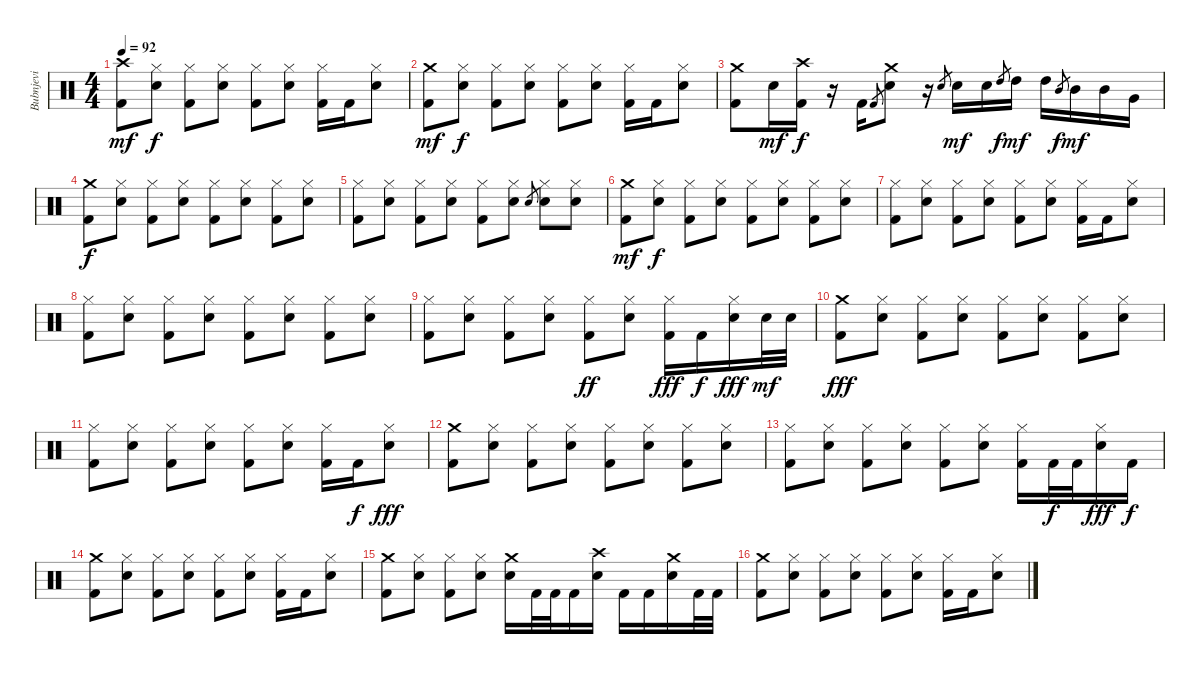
\track ("Bubnjevi" "Bubnjevi") {instrument percussion}
\staff {score}
\articulation defaults
\ts (4 4)
\tempo 92
\clef neutral
\ks c
("Crash high (hit)" "Kick (hit) 2").8{dy mf} ("Hi-Hat (closed)" "Electric Snare (hit)").8{dy f} ("Hi-Hat (closed)" "Kick (hit) 2").8 ("Hi-Hat (closed)" "Electric Snare (hit)").8 ("Hi-Hat (closed)" "Kick (hit) 2").8 ("Hi-Hat (closed)" "Electric Snare (hit)").8 ("Hi-Hat (closed)" "Kick (hit) 2").16 "Kick (hit) 2".16 ("Hi-Hat (closed)" "Electric Snare (hit)").8 |
("Crash medium (hit)" "Kick (hit) 2").8{dy mf} ("Hi-Hat (closed)" "Electric Snare (hit)").8{dy f} ("Hi-Hat (closed)" "Kick (hit) 2").8 ("Hi-Hat (closed)" "Electric Snare (hit)").8 ("Hi-Hat (closed)" "Kick (hit) 2").8 ("Hi-Hat (closed)" "Electric Snare (hit)").8 ("Hi-Hat (closed)" "Kick (hit) 2").16 "Kick (hit) 2".16 ("Hi-Hat (closed)" "Electric Snare (hit)").8 |
("Crash medium (hit)" "Kick (hit) 2").8 "Electric Snare (hit)".16{dy mf} ("Crash high (hit)" "Kick (hit) 2").16{dy f} r.16 "Kick (hit) 2".16 "Kick (hit) 2".8{gr} ("Crash medium (hit)" "Electric Snare (hit)").8 r.16 "Electric Snare (hit)".8{gr} "Electric Snare (hit)".16{dy mf} "Electric Snare (hit)".16 "High Tom (hit)".8{gr dy f} "High Tom (hit)".16{dy mf} "High Tom (hit)".16 "Mid Tom (hit)".8{gr dy f} "Mid Tom (hit)".16{dy mf} "Mid Tom (hit)".16 "Very Low Tom (hit)".16 |
("Crash medium (hit)" "Kick (hit) 2").8{dy f} ("Hi-Hat (closed)" "Electric Snare (hit)").8 ("Hi-Hat (closed)" "Kick (hit) 2").8 ("Hi-Hat (closed)" "Electric Snare (hit)").8 ("Hi-Hat (closed)" "Kick (hit) 2").8 ("Hi-Hat (closed)" "Electric Snare (hit)").8 ("Hi-Hat (closed)" "Kick (hit) 2").8 ("Hi-Hat (closed)" "Electric Snare (hit)").8 |
("Hi-Hat (closed)" "Kick (hit) 2").8 ("Hi-Hat (closed)" "Electric Snare (hit)").8 ("Hi-Hat (closed)" "Kick (hit) 2").8 ("Hi-Hat (closed)" "Electric Snare (hit)").8 ("Hi-Hat (closed)" "Kick (hit) 2").8 ("Hi-Hat (closed)" "Electric Snare (hit)").8 "Electric Snare (hit)".8{gr} ("Hi-Hat (closed)" "Electric Snare (hit)").8 ("Hi-Hat (closed)" "Electric Snare (hit)").8 |
("Crash medium (hit)" "Kick (hit) 2").8{dy mf} ("Hi-Hat (closed)" "Electric Snare (hit)").8{dy f} ("Hi-Hat (closed)" "Kick (hit) 2").8 ("Hi-Hat (closed)" "Electric Snare (hit)").8 ("Hi-Hat (closed)" "Kick (hit) 2").8 ("Hi-Hat (closed)" "Electric Snare (hit)").8 ("Hi-Hat (closed)" "Kick (hit) 2").8 ("Hi-Hat (closed)" "Electric Snare (hit)").8 |
("Hi-Hat (closed)" "Kick (hit) 2").8 ("Hi-Hat (closed)" "Electric Snare (hit)").8 ("Hi-Hat (closed)" "Kick (hit) 2").8 ("Hi-Hat (closed)" "Electric Snare (hit)").8 ("Hi-Hat (closed)" "Kick (hit) 2").8 ("Hi-Hat (closed)" "Electric Snare (hit)").8 ("Hi-Hat (closed)" "Kick (hit) 2").16 "Kick (hit) 2".16 ("Hi-Hat (closed)" "Electric Snare (hit)").8 |
("Hi-Hat (closed)" "Kick (hit) 2").8 ("Hi-Hat (closed)" "Electric Snare (hit)").8 ("Hi-Hat (closed)" "Kick (hit) 2").8 ("Hi-Hat (closed)" "Electric Snare (hit)").8 ("Hi-Hat (closed)" "Kick (hit) 2").8 ("Hi-Hat (closed)" "Electric Snare (hit)").8 ("Hi-Hat (closed)" "Kick (hit) 2").8 ("Hi-Hat (closed)" "Electric Snare (hit)").8 |
("Hi-Hat (closed)" "Kick (hit) 2").8 ("Hi-Hat (closed)" "Electric Snare (hit)").8 ("Hi-Hat (closed)" "Kick (hit) 2").8 ("Hi-Hat (closed)" "Electric Snare (hit)").8 ("Hi-Hat (closed)" "Kick (hit) 2").8{dy ff} ("Hi-Hat (closed)" "Electric Snare (hit)").8 ("Hi-Hat (closed)" "Kick (hit) 2").16{dy fff} "Kick (hit) 2".16{dy f} ("Hi-Hat (closed)" "Electric Snare (hit)").16{dy fff} "Electric Snare (hit)".32{dy mf} "Electric Snare (hit)".32 |
("Crash medium (hit)" "Kick (hit) 2").8{dy fff} ("Hi-Hat (closed)" "Electric Snare (hit)").8 ("Hi-Hat (closed)" "Kick (hit) 2").8 ("Hi-Hat (closed)" "Electric Snare (hit)").8 ("Hi-Hat (closed)" "Kick (hit) 2").8 ("Hi-Hat (closed)" "Electric Snare (hit)").8 ("Hi-Hat (closed)" "Kick (hit) 2").8 ("Hi-Hat (closed)" "Electric Snare (hit)").8 |
("Hi-Hat (closed)" "Kick (hit) 2").8 ("Hi-Hat (closed)" "Electric Snare (hit)").8 ("Hi-Hat (closed)" "Kick (hit) 2").8 ("Hi-Hat (closed)" "Electric Snare (hit)").8 ("Hi-Hat (closed)" "Kick (hit) 2").8 ("Hi-Hat (closed)" "Electric Snare (hit)").8 ("Hi-Hat (closed)" "Kick (hit) 2").16 "Kick (hit) 2".16{dy f} ("Hi-Hat (closed)" "Electric Snare (hit)").8{dy fff} |
("Crash medium (hit)" "Kick (hit) 2").8 ("Hi-Hat (closed)" "Electric Snare (hit)").8 ("Hi-Hat (closed)" "Kick (hit) 2").8 ("Hi-Hat (closed)" "Electric Snare (hit)").8 ("Hi-Hat (closed)" "Kick (hit) 2").8 ("Hi-Hat (closed)" "Electric Snare (hit)").8 ("Hi-Hat (closed)" "Kick (hit) 2").8 ("Hi-Hat (closed)" "Electric Snare (hit)").8 |
("Hi-Hat (closed)" "Kick (hit) 2").8 ("Hi-Hat (closed)" "Electric Snare (hit)").8 ("Hi-Hat (closed)" "Kick (hit) 2").8 ("Hi-Hat (closed)" "Electric Snare (hit)").8 ("Hi-Hat (closed)" "Kick (hit) 2").8 ("Hi-Hat (closed)" "Electric Snare (hit)").8 ("Hi-Hat (closed)" "Kick (hit) 2").16 "Kick (hit) 2".32{dy f} "Kick (hit) 2".32 ("Hi-Hat (closed)" "Electric Snare (hit)").16{dy fff} "Kick (hit) 2".16{dy f} |
("Crash medium (hit)" "Kick (hit) 2").8 ("Hi-Hat (closed)" "Electric Snare (hit)").8 ("Hi-Hat (closed)" "Kick (hit) 2").8 ("Hi-Hat (closed)" "Electric Snare (hit)").8 ("Hi-Hat (closed)" "Kick (hit) 2").8 ("Hi-Hat (closed)" "Electric Snare (hit)").8 ("Hi-Hat (closed)" "Kick (hit) 2").16 "Kick (hit) 2".16 ("Hi-Hat (closed)" "Electric Snare (hit)").8 |
("Crash medium (hit)" "Kick (hit) 2").8 ("Hi-Hat (closed)" "Electric Snare (hit)").8 ("Hi-Hat (closed)" "Kick (hit) 2").8 ("Hi-Hat (closed)" "Electric Snare (hit)").8 ("Crash medium (hit)" "Electric Snare (hit)").16 "Kick (hit) 2".32 "Kick (hit) 2".32 "Kick (hit) 2".16 ("Crash high (hit)" "Electric Snare (hit)").16 "Kick (hit) 2".16 "Kick (hit) 2".16 ("Crash medium (hit)" "Electric Snare (hit)").16 "Kick (hit) 2".32 "Kick (hit) 2".32 |
("Crash medium (hit)" "Kick (hit) 2").8 ("Hi-Hat (closed)" "Electric Snare (hit)").8 ("Hi-Hat (closed)" "Kick (hit) 2").8 ("Hi-Hat (closed)" "Electric Snare (hit)").8 ("Hi-Hat (closed)" "Kick (hit) 2").8 ("Hi-Hat (closed)" "Electric Snare (hit)").8 ("Hi-Hat (closed)" "Kick (hit) 2").16 "Kick (hit) 2".16 ("Hi-Hat (closed)" "Electric Snare (hit)").8
